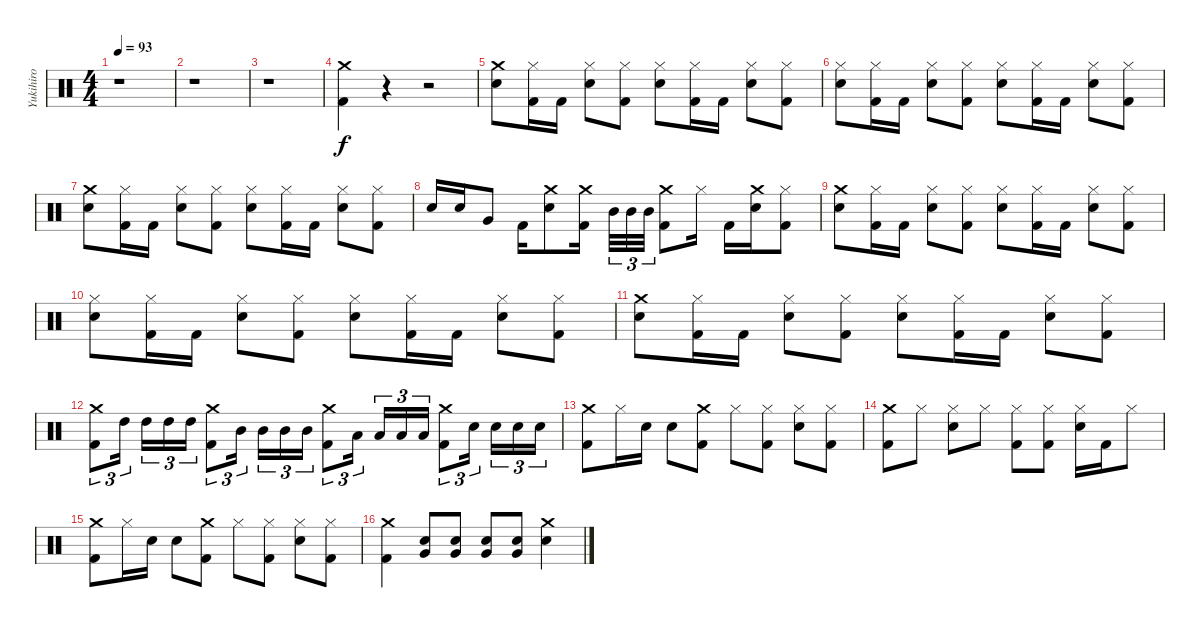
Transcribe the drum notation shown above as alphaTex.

\track ("Yukihiro" "Yukihiro") {instrument percussion}
\staff {score}
\articulation defaults
\ts (4 4)
\tempo 93
\clef neutral
\ks c
r.1{dy f} |
r.1 |
r.1 |
("Crash medium (hit)" "Kick (hit) 2").4 r.4 r.2 |
("Crash medium (hit)" "Snare (hit) 2").8 ("Hi-Hat (closed)" "Kick (hit) 2").16 "Kick (hit) 2".16 ("Hi-Hat (closed)" "Snare (hit) 2").8 ("Hi-Hat (closed)" "Kick (hit) 2").8 ("Hi-Hat (closed)" "Snare (hit) 2").8 ("Hi-Hat (closed)" "Kick (hit) 2").16 "Kick (hit) 2".16 ("Hi-Hat (closed)" "Snare (hit) 2").8 ("Hi-Hat (closed)" "Kick (hit) 2").8 |
("Hi-Hat (closed)" "Snare (hit) 2").8 ("Hi-Hat (closed)" "Kick (hit) 2").16 "Kick (hit) 2".16 ("Hi-Hat (closed)" "Snare (hit) 2").8 ("Hi-Hat (closed)" "Kick (hit) 2").8 ("Hi-Hat (closed)" "Snare (hit) 2").8 ("Hi-Hat (closed)" "Kick (hit) 2").16 "Kick (hit) 2".16 ("Hi-Hat (closed)" "Snare (hit) 2").8 ("Hi-Hat (closed)" "Kick (hit) 2").8 |
("Crash medium (hit)" "Snare (hit) 2").8 ("Hi-Hat (closed)" "Kick (hit) 2").16 "Kick (hit) 2".16 ("Hi-Hat (closed)" "Snare (hit) 2").8 ("Hi-Hat (closed)" "Kick (hit) 2").8 ("Hi-Hat (closed)" "Snare (hit) 2").8 ("Hi-Hat (closed)" "Kick (hit) 2").16 "Kick (hit) 2".16 ("Hi-Hat (closed)" "Snare (hit) 2").8 ("Hi-Hat (closed)" "Kick (hit) 2").8 |
"Snare (hit) 2".16 "Snare (hit) 2".16 "Very Low Tom (hit)".8 "Kick (hit) 2".16 ("Crash medium (hit)" "Snare (hit) 2").8 ("Crash medium (hit)" "Kick (hit) 2").16 "Mid Tom (hit)".32{tu (3 2)} "Mid Tom (hit)".32{tu (3 2)} "Mid Tom (hit)".32{tu (3 2)} ("Crash medium (hit)" "Kick (hit) 2").8 "Hi-Hat (closed)".16 "Kick (hit) 2".16 ("Crash medium (hit)" "Snare (hit) 2").16 ("Hi-Hat (closed)" "Kick (hit) 2").8 |
("Crash medium (hit)" "Snare (hit) 2").8 ("Hi-Hat (closed)" "Kick (hit) 2").16 "Kick (hit) 2".16 ("Hi-Hat (closed)" "Snare (hit) 2").8 ("Hi-Hat (closed)" "Kick (hit) 2").8 ("Hi-Hat (closed)" "Snare (hit) 2").8 ("Hi-Hat (closed)" "Kick (hit) 2").16 "Kick (hit) 2".16 ("Hi-Hat (closed)" "Snare (hit) 2").8 ("Hi-Hat (closed)" "Kick (hit) 2").8 |
("Hi-Hat (closed)" "Snare (hit) 2").8 ("Hi-Hat (closed)" "Kick (hit) 2").16 "Kick (hit) 2".16 ("Hi-Hat (closed)" "Snare (hit) 2").8 ("Hi-Hat (closed)" "Kick (hit) 2").8 ("Hi-Hat (closed)" "Snare (hit) 2").8 ("Hi-Hat (closed)" "Kick (hit) 2").16 "Kick (hit) 2".16 ("Hi-Hat (closed)" "Snare (hit) 2").8 ("Hi-Hat (closed)" "Kick (hit) 2").8 |
("Crash medium (hit)" "Snare (hit) 2").8 ("Hi-Hat (closed)" "Kick (hit) 2").16 "Kick (hit) 2".16 ("Hi-Hat (closed)" "Snare (hit) 2").8 ("Hi-Hat (closed)" "Kick (hit) 2").8 ("Hi-Hat (closed)" "Snare (hit) 2").8 ("Hi-Hat (closed)" "Kick (hit) 2").16 "Kick (hit) 2".16 ("Hi-Hat (closed)" "Snare (hit) 2").8 ("Hi-Hat (closed)" "Kick (hit) 2").8 |
("Crash medium (hit)" "Kick (hit) 2").8{tu (3 2)} "High Tom (hit)".16{tu (3 2)} "High Tom (hit)".16{tu (3 2)} "High Tom (hit)".16{tu (3 2)} "High Tom (hit)".16{tu (3 2)} ("Crash medium (hit)" "Kick (hit) 2").8{tu (3 2)} "Mid Tom (hit)".16{tu (3 2)} "Mid Tom (hit)".16{tu (3 2)} "Mid Tom (hit)".16{tu (3 2)} "Mid Tom (hit)".16{tu (3 2)} ("Crash medium (hit)" "Kick (hit) 2").8{tu (3 2)} "Low Tom (hit)".16{tu (3 2)} "Low Tom (hit)".16{tu (3 2)} "Low Tom (hit)".16{tu (3 2)} "Low Tom (hit)".16{tu (3 2)} ("Crash medium (hit)" "Kick (hit) 2").8{tu (3 2)} "Snare (hit) 2".16{tu (3 2)} "Snare (hit) 2".16{tu (3 2)} "Snare (hit) 2".16{tu (3 2)} "Snare (hit) 2".16{tu (3 2)} |
("Crash medium (hit)" "Kick (hit) 2").8 "Hi-Hat (closed)".16 "Snare (hit) 2".16 "Snare (hit) 2".8 ("Crash medium (hit)" "Kick (hit) 2").8 "Hi-Hat (closed)".8 ("Hi-Hat (closed)" "Kick (hit) 2").8 ("Hi-Hat (closed)" "Snare (hit) 2").8 ("Hi-Hat (closed)" "Kick (hit) 2").8 |
("Crash medium (hit)" "Kick (hit) 2").8 "Hi-Hat (closed)".8 ("Hi-Hat (closed)" "Snare (hit) 2").8 "Hi-Hat (closed)".8 ("Hi-Hat (closed)" "Kick (hit) 2").8 ("Hi-Hat (closed)" "Kick (hit) 2").8 ("Hi-Hat (closed)" "Snare (hit) 2").16 "Kick (hit) 2".16 "Hi-Hat (closed)".8 |
("Crash medium (hit)" "Kick (hit) 2").8 "Hi-Hat (closed)".16 "Snare (hit) 2".16 "Snare (hit) 2".8 ("Crash medium (hit)" "Kick (hit) 2").8 "Hi-Hat (closed)".8 ("Hi-Hat (closed)" "Kick (hit) 2").8 ("Hi-Hat (closed)" "Snare (hit) 2").8 ("Hi-Hat (closed)" "Kick (hit) 2").8 |
("Crash medium (hit)" "Kick (hit) 2").4 ("Snare (hit) 2" "Very Low Tom (hit)").8 ("Snare (hit) 2" "Very Low Tom (hit)").8 ("Snare (hit) 2" "Very Low Tom (hit)").8 ("Snare (hit) 2" "Very Low Tom (hit)").8 ("Crash medium (hit)" "Snare (hit) 2").4
